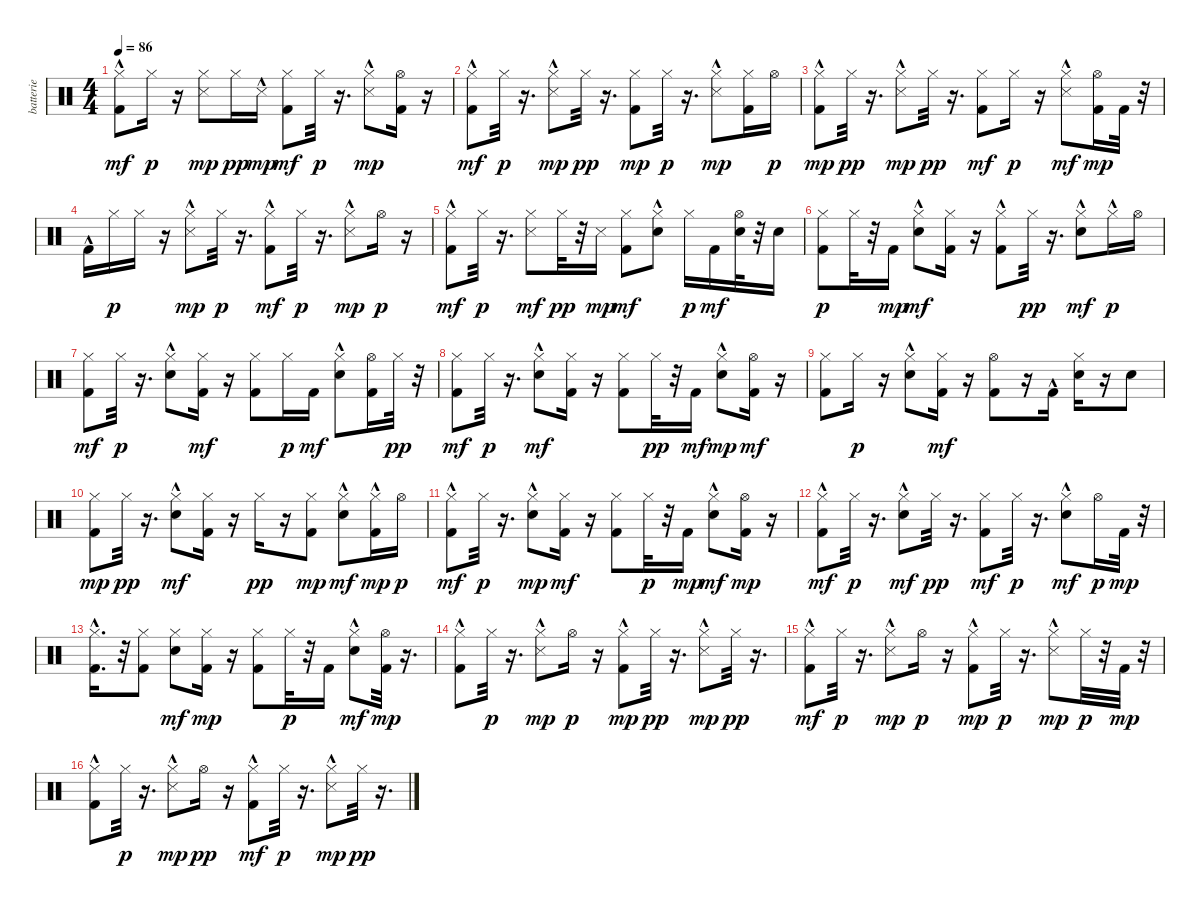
\track ("batterie" "batterie") {instrument percussion}
\staff {score}
\articulation defaults
\ts (4 4)
\tempo 86
\clef neutral
\ks c
("Hi-Hat (closed)" "Kick (hit) 2"{hac}).8{dy mf} "Hi-Hat (closed)".16{dy p} r.16 ("Hi-Hat (closed)" "Snare (side stick) 3").8{dy mp} "Hi-Hat (closed)".16{dy pp} "Snare (side stick) 3"{hac}.16{dy mp} ("Hi-Hat (closed)" "Kick (hit) 2").8{dy mf} "Hi-Hat (closed)".32{dy p} r.16{d} ("Hi-Hat (closed)" "Snare (side stick) 3"{hac}).8{dy mp} ("Hi-Hat (open)" "Kick (hit) 2").16 r.16 |
("Hi-Hat (closed)" "Kick (hit) 2"{hac}).8{dy mf} "Hi-Hat (closed)".32{dy p} r.16{d} ("Hi-Hat (closed)" "Snare (side stick) 3"{hac}).8{dy mp} "Hi-Hat (closed)".32{dy pp} r.16{d} ("Hi-Hat (closed)" "Kick (hit) 2").8{dy mp} "Hi-Hat (closed)".32{dy p} r.16{d} ("Hi-Hat (closed)" "Snare (side stick) 3"{hac}).8{dy mp} ("Hi-Hat (closed)" "Kick (hit) 2").16 "Hi-Hat (open)".16{dy p} |
("Hi-Hat (closed)" "Kick (hit) 2"{hac}).8{dy mp} "Hi-Hat (closed)".32{dy pp} r.16{d} ("Hi-Hat (closed)" "Snare (side stick) 3"{hac}).8{dy mp} "Hi-Hat (closed)".32{dy pp} r.16{d} ("Hi-Hat (closed)" "Kick (hit) 2").8{dy mf} "Hi-Hat (closed)".16{dy p} r.16 ("Hi-Hat (closed)" "Snare (side stick) 3"{hac}).8{dy mf} ("Hi-Hat (open)" "Kick (hit) 2").16{dy mp} "Kick (hit) 2".32 r.32 |
"Kick (hit) 2"{hac}.16 "Hi-Hat (closed)".16{dy p} "Hi-Hat (closed)".16 r.16 ("Hi-Hat (closed)" "Snare (side stick) 3"{hac}).8{dy mp} "Hi-Hat (closed)".32{dy p} r.16{d} ("Hi-Hat (closed)" "Kick (hit) 2"{hac}).8{dy mf} "Hi-Hat (closed)".32{dy p} r.16{d} ("Hi-Hat (closed)" "Snare (side stick) 3"{hac}).8{dy mp} "Hi-Hat (open)".16{dy p} r.16 |
("Hi-Hat (closed)" "Kick (hit) 2"{hac}).8{dy mf} "Hi-Hat (closed)".32{dy p} r.16{d} ("Hi-Hat (closed)" "Snare (side stick) 3").8{dy mf} "Hi-Hat (closed)".32{dy pp} r.32 "Snare (side stick) 3".16{dy mp} ("Hi-Hat (closed)" "Kick (hit) 2").8{dy mf} ("Hi-Hat (closed)" "Snare (hit) 2"{hac}).8 "Hi-Hat (closed)".16{dy p} "Kick (hit) 2".16{dy mf} ("Hi-Hat (open)" "Snare (hit) 2").32 r.32 "Snare (hit) 2".16 |
("Hi-Hat (closed)" "Kick (hit) 2").8{dy p} "Hi-Hat (closed)".32 r.32 "Kick (hit) 2".16{dy mp} ("Hi-Hat (closed)" "Snare (hit) 2"{hac}).8{dy mf} ("Hi-Hat (closed)" "Kick (hit) 2").16 r.16 ("Hi-Hat (closed)" "Kick (hit) 2"{hac}).8 "Hi-Hat (closed)".32{dy pp} r.16{d} ("Hi-Hat (closed)" "Snare (hit) 2"{hac}).8{dy mf} "Hi-Hat (closed)"{hac}.16{dy p} "Hi-Hat (open)".16 |
("Hi-Hat (closed)" "Kick (hit) 2").8{dy mf} "Hi-Hat (closed)".32{dy p} r.16{d} ("Hi-Hat (closed)" "Snare (hit) 2"{hac}).8 ("Hi-Hat (closed)" "Kick (hit) 2").16{dy mf} r.16 ("Hi-Hat (closed)" "Kick (hit) 2").8 "Hi-Hat (closed)".16{dy p} "Kick (hit) 2".16{dy mf} ("Hi-Hat (closed)" "Snare (hit) 2"{hac}).8 ("Hi-Hat (open)" "Kick (hit) 2").16 "Hi-Hat (closed)".32{dy pp} r.32 |
("Hi-Hat (closed)" "Kick (hit) 2").8{dy mf} "Hi-Hat (closed)".32{dy p} r.16{d} ("Hi-Hat (closed)" "Snare (hit) 2"{hac}).8{dy mf} ("Hi-Hat (closed)" "Kick (hit) 2").16 r.16 ("Hi-Hat (closed)" "Kick (hit) 2").8 "Hi-Hat (closed)".32{dy pp} r.32 "Kick (hit) 2".16{dy mf} ("Hi-Hat (closed)" "Snare (hit) 2"{hac}).8{dy mp} ("Hi-Hat (open)" "Kick (hit) 2").16{dy mf} r.16 |
("Hi-Hat (closed)" "Kick (hit) 2").8 "Hi-Hat (closed)".16{dy p} r.16 ("Hi-Hat (closed)" "Snare (hit) 2"{hac}).8 ("Hi-Hat (closed)" "Kick (hit) 2").16{dy mf} r.16 ("Hi-Hat (open)" "Kick (hit) 2").8 r.16 "Kick (hit) 2"{hac}.16 ("Hi-Hat (closed)" "Snare (hit) 2").16 r.16 "Snare (hit) 2".8 |
("Hi-Hat (closed)" "Kick (hit) 2").8{dy mp} "Hi-Hat (closed)".32{dy pp} r.16{d} ("Hi-Hat (closed)" "Snare (hit) 2"{hac}).8{dy mf} ("Hi-Hat (closed)" "Kick (hit) 2").16 r.16 "Hi-Hat (closed)".16{dy pp} r.16 ("Hi-Hat (closed)" "Kick (hit) 2").8{dy mp} ("Hi-Hat (closed)" "Snare (hit) 2"{hac}).8{dy mf} ("Hi-Hat (closed)"{hac} "Kick (hit) 2").16{dy mp} "Hi-Hat (open)".16{dy p} |
("Hi-Hat (closed)"{hac} "Kick (hit) 2").8{dy mf} "Hi-Hat (closed)".32{dy p} r.16{d} ("Hi-Hat (closed)" "Snare (hit) 2"{hac}).8{dy mp} ("Hi-Hat (closed)" "Kick (hit) 2").16{dy mf} r.16 ("Hi-Hat (closed)" "Kick (hit) 2").8 "Hi-Hat (closed)".32{dy p} r.32 "Kick (hit) 2".16{dy mp} ("Hi-Hat (closed)" "Snare (hit) 2"{hac}).8{dy mf} ("Hi-Hat (open)" "Kick (hit) 2").16{dy mp} r.16 |
("Hi-Hat (closed)" "Kick (hit) 2"{hac}).8{dy mf} "Hi-Hat (closed)".32{dy p} r.16{d} ("Hi-Hat (closed)" "Snare (hit) 2"{hac}).8{dy mf} "Hi-Hat (closed)".32{dy pp} r.16{d} ("Hi-Hat (closed)" "Kick (hit) 2").8{dy mf} "Hi-Hat (closed)".32{dy p} r.16{d} ("Hi-Hat (closed)" "Snare (hit) 2"{hac}).8{dy mf} "Hi-Hat (open)".16{dy p} "Kick (hit) 2".32{dy mp} r.32 |
("Hi-Hat (closed)" "Kick (hit) 2"{hac}).16{d} r.32 ("Hi-Hat (closed)" "Kick (hit) 2").8 ("Hi-Hat (closed)" "Snare (hit) 2").8{dy mf} ("Hi-Hat (closed)" "Kick (hit) 2").16{dy mp} r.16 ("Hi-Hat (closed)" "Kick (hit) 2").8 "Hi-Hat (closed)".32{dy p} r.32 "Kick (hit) 2".16 ("Hi-Hat (closed)" "Snare (hit) 2"{hac}).8{dy mf} ("Hi-Hat (open)" "Kick (hit) 2").32{dy mp} r.16{d} |
("Hi-Hat (closed)" "Kick (hit) 2"{hac}).8 "Hi-Hat (closed)".32{dy p} r.16{d} ("Hi-Hat (closed)" "Snare (side stick) 3"{hac}).8{dy mp} "Hi-Hat (open)".16{dy p} r.16 ("Hi-Hat (closed)" "Kick (hit) 2"{hac}).8{dy mp} "Hi-Hat (closed)".32{dy pp} r.16{d} ("Hi-Hat (closed)" "Snare (side stick) 3"{hac}).8{dy mp} "Hi-Hat (closed)".32{dy pp} r.16{d} |
("Hi-Hat (closed)" "Kick (hit) 2"{hac}).8{dy mf} "Hi-Hat (closed)".32{dy p} r.16{d} ("Hi-Hat (closed)" "Snare (side stick) 3"{hac}).8{dy mp} "Hi-Hat (open)".16{dy p} r.16 ("Hi-Hat (closed)" "Kick (hit) 2"{hac}).8{dy mp} "Hi-Hat (closed)".32{dy p} r.16{d} ("Hi-Hat (closed)" "Snare (side stick) 3"{hac}).8{dy mp} "Hi-Hat (closed)".32{dy p} r.32 "Kick (hit) 2".32{dy mp} r.32 |
("Hi-Hat (closed)" "Kick (hit) 2"{hac}).8 "Hi-Hat (closed)".32{dy p} r.16{d} ("Hi-Hat (closed)" "Snare (side stick) 3"{hac}).8{dy mp} "Hi-Hat (open)".16{dy pp} r.16 ("Hi-Hat (closed)" "Kick (hit) 2"{hac}).8{dy mf} "Hi-Hat (closed)".32{dy p} r.16{d} ("Hi-Hat (closed)" "Snare (side stick) 3"{hac}).8{dy mp} "Hi-Hat (closed)".32{dy pp} r.16{d}
